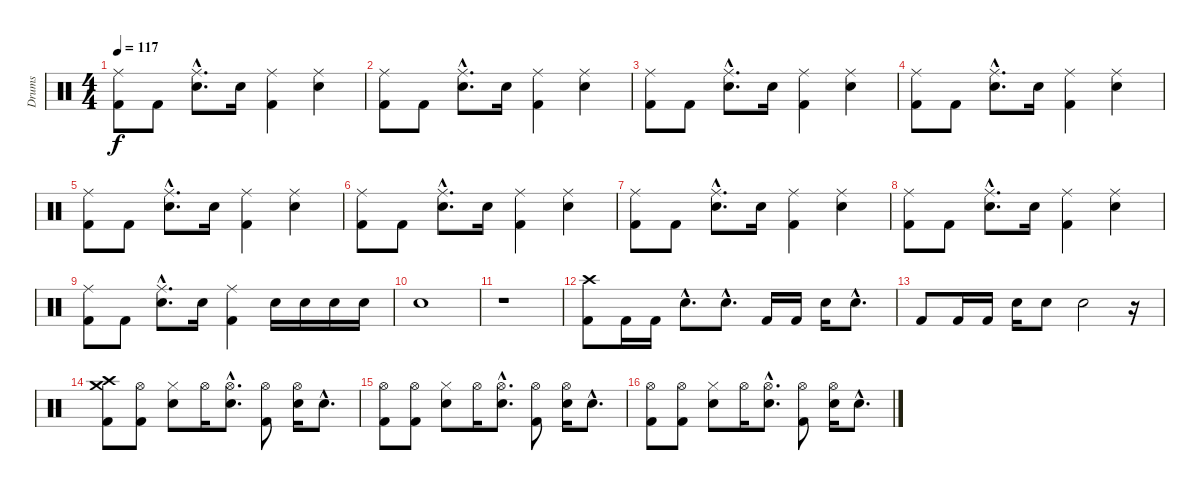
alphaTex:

\track ("Drums" "Drums") {instrument percussion}
\staff {score}
\articulation defaults
\ts (4 4)
\tempo 117
\clef neutral
\ks c
("Ride (middle)" "Kick (hit) 2").8{dy f} "Kick (hit) 2".8 ("Ride (middle)"{hac} "Electric Snare (hit)"{hac}).8{d} "Electric Snare (hit)".16 ("Ride (middle)" "Kick (hit) 2").4 ("Ride (middle)" "Electric Snare (hit)").4 |
("Ride (middle)" "Kick (hit) 2").8 "Kick (hit) 2".8 ("Ride (middle)"{hac} "Electric Snare (hit)"{hac}).8{d} "Electric Snare (hit)".16 ("Ride (middle)" "Kick (hit) 2").4 ("Ride (middle)" "Electric Snare (hit)").4 |
("Ride (middle)" "Kick (hit) 2").8 "Kick (hit) 2".8 ("Ride (middle)"{hac} "Electric Snare (hit)"{hac}).8{d} "Electric Snare (hit)".16 ("Ride (middle)" "Kick (hit) 2").4 ("Ride (middle)" "Electric Snare (hit)").4 |
("Ride (middle)" "Kick (hit) 2").8 "Kick (hit) 2".8 ("Ride (middle)"{hac} "Electric Snare (hit)"{hac}).8{d} "Electric Snare (hit)".16 ("Ride (middle)" "Kick (hit) 2").4 ("Ride (middle)" "Electric Snare (hit)").4 |
("Ride (middle)" "Kick (hit) 2").8 "Kick (hit) 2".8 ("Ride (middle)"{hac} "Electric Snare (hit)"{hac}).8{d} "Electric Snare (hit)".16 ("Ride (middle)" "Kick (hit) 2").4 ("Ride (middle)" "Electric Snare (hit)").4 |
("Ride (middle)" "Kick (hit) 2").8 "Kick (hit) 2".8 ("Ride (middle)"{hac} "Electric Snare (hit)"{hac}).8{d} "Electric Snare (hit)".16 ("Ride (middle)" "Kick (hit) 2").4 ("Ride (middle)" "Electric Snare (hit)").4 |
("Ride (middle)" "Kick (hit) 2").8 "Kick (hit) 2".8 ("Ride (middle)"{hac} "Electric Snare (hit)"{hac}).8{d} "Electric Snare (hit)".16 ("Ride (middle)" "Kick (hit) 2").4 ("Ride (middle)" "Electric Snare (hit)").4 |
("Ride (middle)" "Kick (hit) 2").8 "Kick (hit) 2".8 ("Ride (middle)"{hac} "Electric Snare (hit)"{hac}).8{d} "Electric Snare (hit)".16 ("Ride (middle)" "Kick (hit) 2").4 ("Ride (middle)" "Electric Snare (hit)").4 |
("Ride (middle)" "Kick (hit) 2").8 "Kick (hit) 2".8 ("Ride (middle)"{hac} "Electric Snare (hit)"{hac}).8{d} "Electric Snare (hit)".16 ("Ride (middle)" "Kick (hit) 2").4 "Electric Snare (hit)".16 "Electric Snare (hit)".16 "Electric Snare (hit)".16 "Electric Snare (hit)".16 |
"Electric Snare (hit)".1 |
r.1 |
("Crash high (hit)" "Kick (hit) 2").8{volume 10} "Kick (hit) 2".16 "Kick (hit) 2".16 "Electric Snare (hit)"{hac}.8{d} "Electric Snare (hit)"{hac}.8{d} "Kick (hit) 2".16 "Kick (hit) 2".16 "Electric Snare (hit)".16 "Electric Snare (hit)"{hac}.8{d} |
"Kick (hit) 2".8 "Kick (hit) 2".16 "Kick (hit) 2".16 "Electric Snare (hit)".16{volume 12} "Electric Snare (hit)".8 "Electric Snare (hit)".2 r.16 |
("Crash high (hit)" "Crash medium (hit)" "Kick (hit) 2").8{volume 14} ("Hi-Hat (open)" "Kick (hit) 2").8 ("Hi-Hat (closed)" "Electric Snare (hit)").8 "Hi-Hat (open)".16 ("Hi-Hat (open)"{hac} "Electric Snare (hit)"{hac}).8{d} ("Hi-Hat (open)" "Kick (hit) 2").8 ("Hi-Hat (open)" "Electric Snare (hit)").16 "Electric Snare (hit)"{hac}.8{d} |
("Hi-Hat (open)" "Kick (hit) 2").8 ("Hi-Hat (open)" "Kick (hit) 2").8 ("Hi-Hat (closed)" "Electric Snare (hit)").8 "Hi-Hat (open)".16 ("Hi-Hat (open)"{hac} "Electric Snare (hit)"{hac}).8{d} ("Hi-Hat (open)" "Kick (hit) 2").8 ("Hi-Hat (open)" "Electric Snare (hit)").16 "Electric Snare (hit)"{hac}.8{d} |
("Hi-Hat (open)" "Kick (hit) 2").8 ("Hi-Hat (open)" "Kick (hit) 2").8 ("Hi-Hat (closed)" "Electric Snare (hit)").8 "Hi-Hat (open)".16 ("Hi-Hat (open)"{hac} "Electric Snare (hit)"{hac}).8{d} ("Hi-Hat (open)" "Kick (hit) 2").8 ("Hi-Hat (open)" "Electric Snare (hit)").16 "Electric Snare (hit)"{hac}.8{d}
